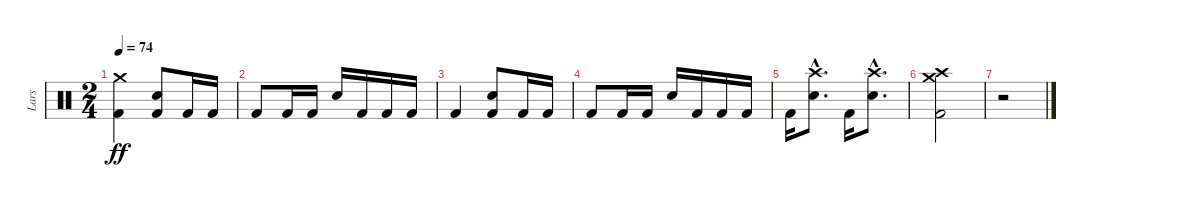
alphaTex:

\track ("Lars" "Lars") {instrument percussion}
\staff {score}
\articulation defaults
\ts (2 4)
\tempo 74
\clef neutral
\ks c
("Crash medium (hit)" "Kick (hit) 2").4{dy ff} ("Snare (hit) 2" "Kick (hit) 2").8 "Kick (hit) 2".16 "Kick (hit) 2".16 |
"Kick (hit) 2".8 "Kick (hit) 2".16 "Kick (hit) 2".16 "Snare (hit) 2".16 "Kick (hit) 2".16 "Kick (hit) 2".16 "Kick (hit) 2".16 |
"Kick (hit) 2".4 ("Snare (hit) 2" "Kick (hit) 2").8 "Kick (hit) 2".16 "Kick (hit) 2".16 |
"Kick (hit) 2".8 "Kick (hit) 2".16 "Kick (hit) 2".16 "Snare (hit) 2".16 "Kick (hit) 2".16 "Kick (hit) 2".16 "Kick (hit) 2".16 |
"Kick (hit) 2".16 ("Crash high (hit)"{hac} "Snare (hit) 2"{hac}).8{d} "Kick (hit) 2".16 ("Crash high (hit)"{hac} "Snare (hit) 2"{hac}).8{d} |
("Crash medium (hit)" "Crash high (hit)" "Kick (hit) 2").2 |
r.2
